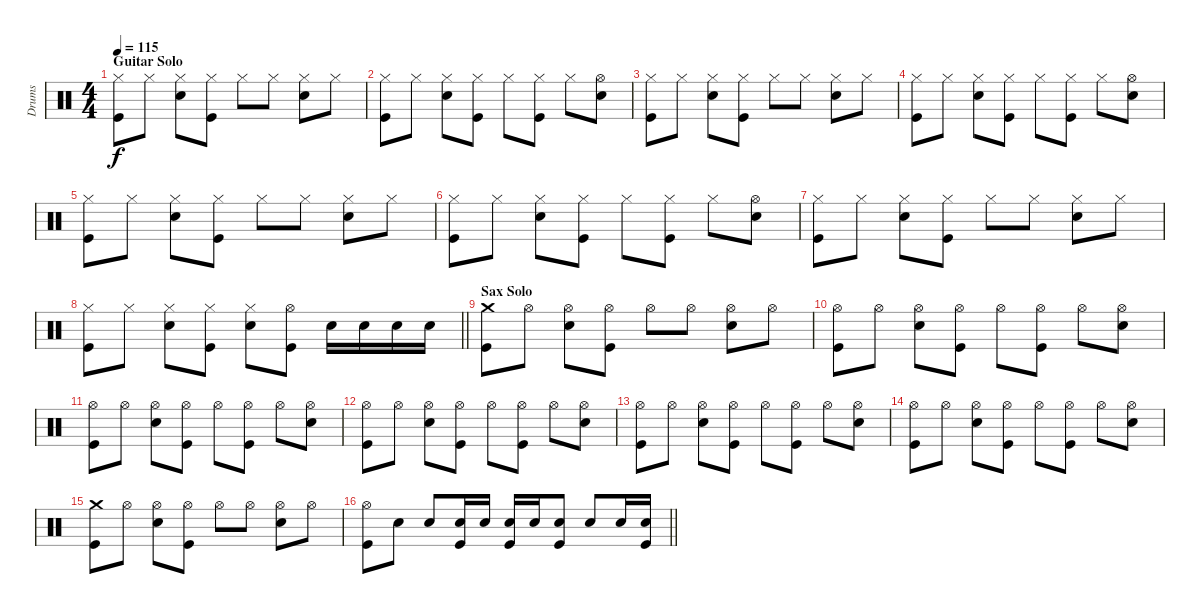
\track ("Drums" "Drums") {instrument percussion}
\staff {score}
\articulation defaults
\ts (4 4)
\section ("" "Guitar Solo")
\tempo 115
\clef neutral
\ks c
("Hi-Hat (closed)" "Kick (hit)").8{dy f} "Hi-Hat (closed)".8 ("Hi-Hat (closed)" "Snare (hit) 2").8 ("Hi-Hat (closed)" "Kick (hit)").8 "Hi-Hat (closed)".8 "Hi-Hat (closed)".8 ("Hi-Hat (closed)" "Snare (hit) 2").8 "Hi-Hat (closed)".8 |
("Hi-Hat (closed)" "Kick (hit)").8 "Hi-Hat (closed)".8 ("Hi-Hat (closed)" "Snare (hit) 2").8 ("Hi-Hat (closed)" "Kick (hit)").8 "Hi-Hat (closed)".8 ("Hi-Hat (closed)" "Kick (hit)").8 "Hi-Hat (closed)".8 ("Hi-Hat (open)" "Snare (hit) 2").8 |
("Hi-Hat (closed)" "Kick (hit)").8 "Hi-Hat (closed)".8 ("Hi-Hat (closed)" "Snare (hit) 2").8 ("Hi-Hat (closed)" "Kick (hit)").8 "Hi-Hat (closed)".8 "Hi-Hat (closed)".8 ("Hi-Hat (closed)" "Snare (hit) 2").8 "Hi-Hat (closed)".8 |
("Hi-Hat (closed)" "Kick (hit)").8 "Hi-Hat (closed)".8 ("Hi-Hat (closed)" "Snare (hit) 2").8 ("Hi-Hat (closed)" "Kick (hit)").8 "Hi-Hat (closed)".8 ("Hi-Hat (closed)" "Kick (hit)").8 "Hi-Hat (closed)".8 ("Hi-Hat (open)" "Snare (hit) 2").8 |
("Hi-Hat (closed)" "Kick (hit)").8 "Hi-Hat (closed)".8 ("Hi-Hat (closed)" "Snare (hit) 2").8 ("Hi-Hat (closed)" "Kick (hit)").8 "Hi-Hat (closed)".8 "Hi-Hat (closed)".8 ("Hi-Hat (closed)" "Snare (hit) 2").8 "Hi-Hat (closed)".8 |
("Hi-Hat (closed)" "Kick (hit)").8 "Hi-Hat (closed)".8 ("Hi-Hat (closed)" "Snare (hit) 2").8 ("Hi-Hat (closed)" "Kick (hit)").8 "Hi-Hat (closed)".8 ("Hi-Hat (closed)" "Kick (hit)").8 "Hi-Hat (closed)".8 ("Hi-Hat (open)" "Snare (hit) 2").8 |
("Hi-Hat (closed)" "Kick (hit)").8 "Hi-Hat (closed)".8 ("Hi-Hat (closed)" "Snare (hit) 2").8 ("Hi-Hat (closed)" "Kick (hit)").8 "Hi-Hat (closed)".8 "Hi-Hat (closed)".8 ("Hi-Hat (closed)" "Snare (hit) 2").8 "Hi-Hat (closed)".8 |
\barLineRight lightlight
("Hi-Hat (closed)" "Kick (hit)").8 "Hi-Hat (closed)".8 ("Hi-Hat (closed)" "Snare (hit) 2").8 ("Hi-Hat (closed)" "Kick (hit)").8 ("Hi-Hat (closed)" "Snare (hit) 2").8 ("Hi-Hat (open)" "Kick (hit)").8 "Snare (hit) 2".16 "Snare (hit) 2".16 "Snare (hit) 2".16 "Snare (hit) 2".16 |
\section ("" "Sax Solo")
("Crash medium (hit)" "Kick (hit)").8 "Hi-Hat (open)".8 ("Hi-Hat (open)" "Snare (hit) 2").8 ("Hi-Hat (open)" "Kick (hit)").8 "Hi-Hat (open)".8 "Hi-Hat (open)".8 ("Hi-Hat (open)" "Snare (hit) 2").8 "Hi-Hat (open)".8 |
("Hi-Hat (open)" "Kick (hit)").8 "Hi-Hat (open)".8 ("Hi-Hat (open)" "Snare (hit) 2").8 ("Hi-Hat (open)" "Kick (hit)").8 "Hi-Hat (open)".8 ("Hi-Hat (open)" "Kick (hit)").8 "Hi-Hat (open)".8 ("Hi-Hat (open)" "Snare (hit) 2").8 |
("Hi-Hat (open)" "Kick (hit)").8 "Hi-Hat (open)".8 ("Hi-Hat (open)" "Snare (hit) 2").8 ("Hi-Hat (open)" "Kick (hit)").8 "Hi-Hat (open)".8 ("Hi-Hat (open)" "Kick (hit)").8 "Hi-Hat (open)".8 ("Hi-Hat (open)" "Snare (hit) 2").8 |
("Hi-Hat (open)" "Kick (hit)").8 "Hi-Hat (open)".8 ("Hi-Hat (open)" "Snare (hit) 2").8 ("Hi-Hat (open)" "Kick (hit)").8 "Hi-Hat (open)".8 ("Hi-Hat (open)" "Kick (hit)").8 "Hi-Hat (open)".8 ("Hi-Hat (open)" "Snare (hit) 2").8 |
("Hi-Hat (open)" "Kick (hit)").8 "Hi-Hat (open)".8 ("Hi-Hat (open)" "Snare (hit) 2").8 ("Hi-Hat (open)" "Kick (hit)").8 "Hi-Hat (open)".8 ("Hi-Hat (open)" "Kick (hit)").8 "Hi-Hat (open)".8 ("Hi-Hat (open)" "Snare (hit) 2").8 |
("Hi-Hat (open)" "Kick (hit)").8 "Hi-Hat (open)".8 ("Hi-Hat (open)" "Snare (hit) 2").8 ("Hi-Hat (open)" "Kick (hit)").8 "Hi-Hat (open)".8 ("Hi-Hat (open)" "Kick (hit)").8 "Hi-Hat (open)".8 ("Hi-Hat (open)" "Snare (hit) 2").8 |
("Crash medium (hit)" "Kick (hit)").8 "Hi-Hat (open)".8 ("Hi-Hat (open)" "Snare (hit) 2").8 ("Hi-Hat (open)" "Kick (hit)").8 "Hi-Hat (open)".8 "Hi-Hat (open)".8 ("Hi-Hat (open)" "Snare (hit) 2").8 "Hi-Hat (open)".8 |
\barLineRight lightlight
("Hi-Hat (open)" "Kick (hit)").8 "Snare (hit) 2".8 "Snare (hit) 2".8 ("Snare (hit) 2" "Kick (hit)").16 "Snare (hit) 2".16 ("Snare (hit) 2" "Kick (hit)").16 "Snare (hit) 2".16 ("Snare (hit) 2" "Kick (hit)").8 "Snare (hit) 2".8 "Snare (hit) 2".16 ("Snare (hit) 2" "Kick (hit)").16
